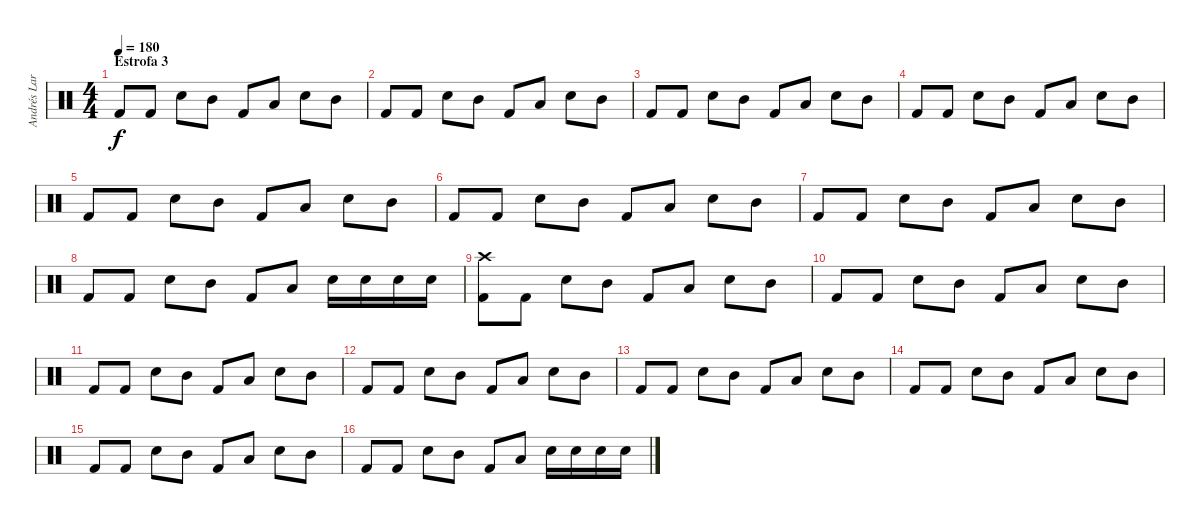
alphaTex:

\track ("Andrés Larraín (batería)" "Andrés Lar") {instrument percussion}
\staff {score}
\articulation defaults
\ts (4 4)
\section ("" "Estrofa 3")
\tempo 180
\clef neutral
\ks c "Kick (hit) 2".8{dy f} "Kick (hit) 2".8 "Electric Snare (hit)".8 "Mid Tom (hit)".8 "Kick (hit) 2".8 "Low Floor Tom (hit)".8 "Electric Snare (hit)".8 "Mid Tom (hit)".8
|
"Kick (hit) 2".8 "Kick (hit) 2".8 "Electric Snare (hit)".8 "Mid Tom (hit)".8 "Kick (hit) 2".8 "Low Floor Tom (hit)".8 "Electric Snare (hit)".8 "Mid Tom (hit)".8 |
"Kick (hit) 2".8 "Kick (hit) 2".8 "Electric Snare (hit)".8 "Mid Tom (hit)".8 "Kick (hit) 2".8 "Low Floor Tom (hit)".8 "Electric Snare (hit)".8 "Mid Tom (hit)".8 |
"Kick (hit) 2".8 "Kick (hit) 2".8 "Electric Snare (hit)".8 "Mid Tom (hit)".8 "Kick (hit) 2".8 "Low Floor Tom (hit)".8 "Electric Snare (hit)".8 "Mid Tom (hit)".8 |
"Kick (hit) 2".8 "Kick (hit) 2".8 "Electric Snare (hit)".8 "Mid Tom (hit)".8 "Kick (hit) 2".8 "Low Floor Tom (hit)".8 "Electric Snare (hit)".8 "Mid Tom (hit)".8 |
"Kick (hit) 2".8 "Kick (hit) 2".8 "Electric Snare (hit)".8 "Mid Tom (hit)".8 "Kick (hit) 2".8 "Low Floor Tom (hit)".8 "Electric Snare (hit)".8 "Mid Tom (hit)".8 |
"Kick (hit) 2".8 "Kick (hit) 2".8 "Electric Snare (hit)".8 "Mid Tom (hit)".8 "Kick (hit) 2".8 "Low Floor Tom (hit)".8 "Electric Snare (hit)".8 "Mid Tom (hit)".8 |
"Kick (hit) 2".8 "Kick (hit) 2".8 "Electric Snare (hit)".8 "Mid Tom (hit)".8 "Kick (hit) 2".8 "Low Floor Tom (hit)".8 "Electric Snare (hit)".16 "Electric Snare (hit)".16 "Electric Snare (hit)".16 "Electric Snare (hit)".16 |
("Crash high (hit)" "Kick (hit) 2").8 "Kick (hit) 2".8 "Electric Snare (hit)".8 "Mid Tom (hit)".8 "Kick (hit) 2".8 "Low Floor Tom (hit)".8 "Electric Snare (hit)".8 "Mid Tom (hit)".8 |
"Kick (hit) 2".8 "Kick (hit) 2".8 "Electric Snare (hit)".8 "Mid Tom (hit)".8 "Kick (hit) 2".8 "Low Floor Tom (hit)".8 "Electric Snare (hit)".8 "Mid Tom (hit)".8 |
"Kick (hit) 2".8 "Kick (hit) 2".8 "Electric Snare (hit)".8 "Mid Tom (hit)".8 "Kick (hit) 2".8 "Low Floor Tom (hit)".8 "Electric Snare (hit)".8 "Mid Tom (hit)".8 |
"Kick (hit) 2".8 "Kick (hit) 2".8 "Electric Snare (hit)".8 "Mid Tom (hit)".8 "Kick (hit) 2".8 "Low Floor Tom (hit)".8 "Electric Snare (hit)".8 "Mid Tom (hit)".8 |
"Kick (hit) 2".8 "Kick (hit) 2".8 "Electric Snare (hit)".8 "Mid Tom (hit)".8 "Kick (hit) 2".8 "Low Floor Tom (hit)".8 "Electric Snare (hit)".8 "Mid Tom (hit)".8 |
"Kick (hit) 2".8 "Kick (hit) 2".8 "Electric Snare (hit)".8 "Mid Tom (hit)".8 "Kick (hit) 2".8 "Low Floor Tom (hit)".8 "Electric Snare (hit)".8 "Mid Tom (hit)".8 |
"Kick (hit) 2".8 "Kick (hit) 2".8 "Electric Snare (hit)".8 "Mid Tom (hit)".8 "Kick (hit) 2".8 "Low Floor Tom (hit)".8 "Electric Snare (hit)".8 "Mid Tom (hit)".8 |
"Kick (hit) 2".8 "Kick (hit) 2".8 "Electric Snare (hit)".8 "Mid Tom (hit)".8 "Kick (hit) 2".8 "Low Floor Tom (hit)".8 "Electric Snare (hit)".16 "Electric Snare (hit)".16 "Electric Snare (hit)".16 "Electric Snare (hit)".16
